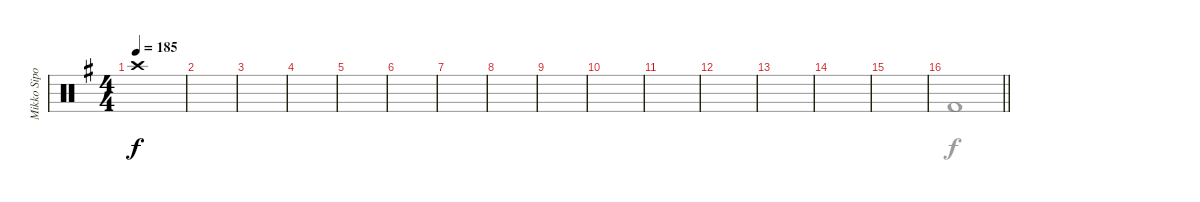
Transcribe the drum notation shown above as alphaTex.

\track ("Mikko Sipola (drums)" "Mikko Sipo") {instrument percussion}
\staff {score}
\articulation defaults
\voice
\ts (4 4)
\tempo 185
\clef neutral
\ks eminor "Crash high (hit)".1{dy f}
|
|
|
|
|
|
|
|
|
|
|
|
|
|
|
\barLineRight lightlight
\voice
\clef neutral
\ks eminor "Kick (hit) 2".1{dy f}
|
|
|
|
|
|
|
|
|
|
|
|
|
|
|
\barLineRight lightlight
